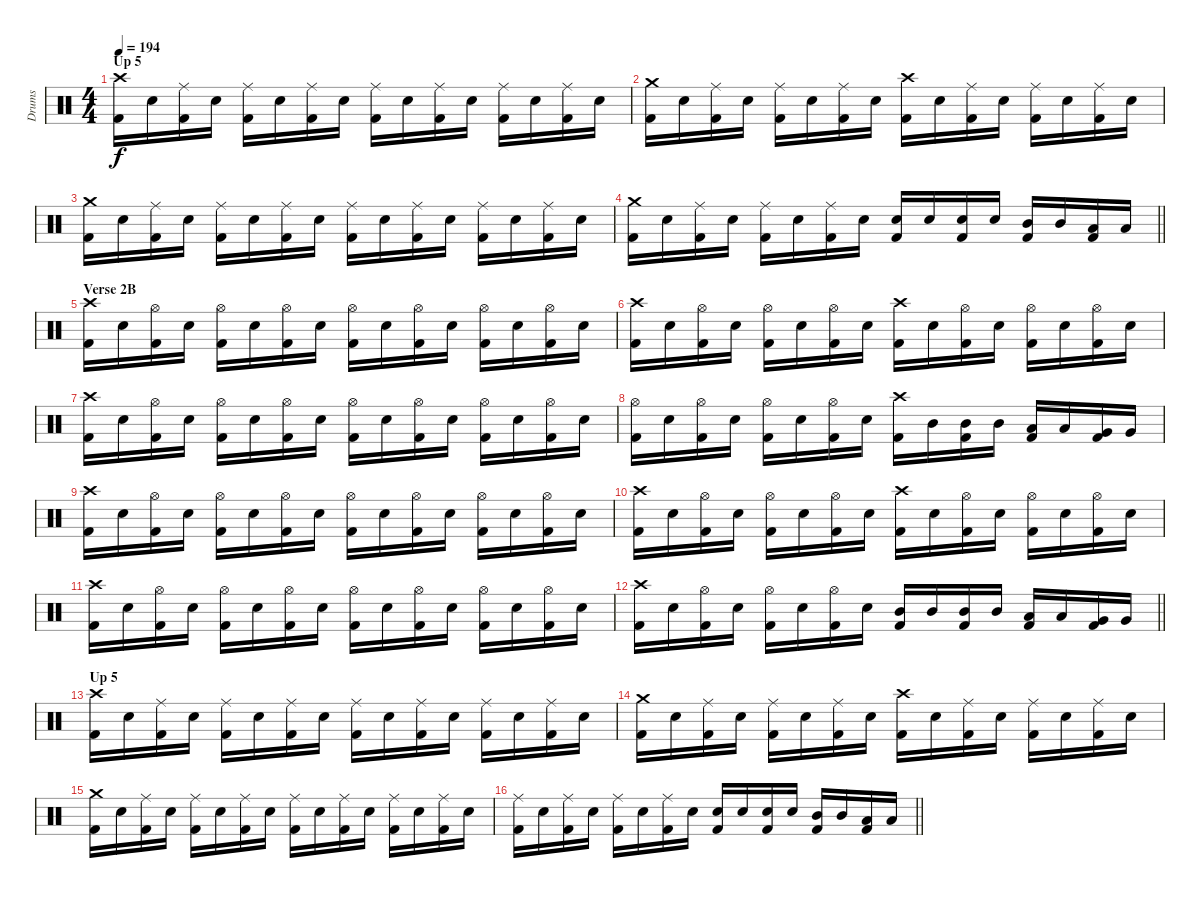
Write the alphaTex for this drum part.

\track ("Drums" "Drums") {instrument percussion}
\staff {score}
\articulation defaults
\ts (4 4)
\section ("" "Up 5")
\tempo 194
\clef neutral
\ks c
("Crash high (hit)" "Kick (hit) 2").16{dy f} "Electric Snare (hit)".16 ("Ride (middle)" "Kick (hit) 2").16 "Electric Snare (hit)".16 ("Ride (middle)" "Kick (hit) 2").16 "Electric Snare (hit)".16 ("Ride (middle)" "Kick (hit) 2").16 "Electric Snare (hit)".16 ("Ride (middle)" "Kick (hit) 2").16 "Electric Snare (hit)".16 ("Ride (middle)" "Kick (hit) 2").16 "Electric Snare (hit)".16 ("Ride (middle)" "Kick (hit) 2").16 "Electric Snare (hit)".16 ("Ride (middle)" "Kick (hit) 2").16 "Electric Snare (hit)".16 |
("Crash medium (hit)" "Kick (hit) 2").16 "Electric Snare (hit)".16 ("Ride (middle)" "Kick (hit) 2").16 "Electric Snare (hit)".16 ("Ride (middle)" "Kick (hit) 2").16 "Electric Snare (hit)".16 ("Ride (middle)" "Kick (hit) 2").16 "Electric Snare (hit)".16 ("Crash high (hit)" "Kick (hit) 2").16 "Electric Snare (hit)".16 ("Ride (middle)" "Kick (hit) 2").16 "Electric Snare (hit)".16 ("Ride (middle)" "Kick (hit) 2").16 "Electric Snare (hit)".16 ("Ride (middle)" "Kick (hit) 2").16 "Electric Snare (hit)".16 |
("Crash medium (hit)" "Kick (hit) 2").16 "Electric Snare (hit)".16 ("Ride (middle)" "Kick (hit) 2").16 "Electric Snare (hit)".16 ("Ride (middle)" "Kick (hit) 2").16 "Electric Snare (hit)".16 ("Ride (middle)" "Kick (hit) 2").16 "Electric Snare (hit)".16 ("Ride (middle)" "Kick (hit) 2").16 "Electric Snare (hit)".16 ("Ride (middle)" "Kick (hit) 2").16 "Electric Snare (hit)".16 ("Ride (middle)" "Kick (hit) 2").16 "Electric Snare (hit)".16 ("Ride (middle)" "Kick (hit) 2").16 "Electric Snare (hit)".16 |
\barLineRight lightlight
("Crash medium (hit)" "Kick (hit) 2").16 "Electric Snare (hit)".16 ("Ride (middle)" "Kick (hit) 2").16 "Electric Snare (hit)".16 ("Ride (middle)" "Kick (hit) 2").16 "Electric Snare (hit)".16 ("Ride (middle)" "Kick (hit) 2").16 "Electric Snare (hit)".16 ("Electric Snare (hit)" "Kick (hit) 2").16 "Electric Snare (hit)".16 ("Electric Snare (hit)" "Kick (hit) 2").16 "Electric Snare (hit)".16 ("Mid Tom (hit)" "Kick (hit) 2").16 "Mid Tom (hit)".16 ("Low Tom (hit)" "Kick (hit) 2").16 "Low Tom (hit)".16 |
\section ("" "Verse 2B")
("Crash high (hit)" "Kick (hit) 2").16 "Electric Snare (hit)".16 ("Hi-Hat (open)" "Kick (hit) 2").16 "Electric Snare (hit)".16 ("Hi-Hat (open)" "Kick (hit) 2").16 "Electric Snare (hit)".16 ("Hi-Hat (open)" "Kick (hit) 2").16 "Electric Snare (hit)".16 ("Hi-Hat (open)" "Kick (hit) 2").16 "Electric Snare (hit)".16 ("Hi-Hat (open)" "Kick (hit) 2").16 "Electric Snare (hit)".16 ("Hi-Hat (open)" "Kick (hit) 2").16 "Electric Snare (hit)".16 ("Hi-Hat (open)" "Kick (hit) 2").16 "Electric Snare (hit)".16 |
("Crash high (hit)" "Kick (hit) 2").16 "Electric Snare (hit)".16 ("Hi-Hat (open)" "Kick (hit) 2").16 "Electric Snare (hit)".16 ("Hi-Hat (open)" "Kick (hit) 2").16 "Electric Snare (hit)".16 ("Hi-Hat (open)" "Kick (hit) 2").16 "Electric Snare (hit)".16 ("Crash high (hit)" "Kick (hit) 2").16 "Electric Snare (hit)".16 ("Hi-Hat (open)" "Kick (hit) 2").16 "Electric Snare (hit)".16 ("Hi-Hat (open)" "Kick (hit) 2").16 "Electric Snare (hit)".16 ("Hi-Hat (open)" "Kick (hit) 2").16 "Electric Snare (hit)".16 |
("Crash high (hit)" "Kick (hit) 2").16 "Electric Snare (hit)".16 ("Hi-Hat (open)" "Kick (hit) 2").16 "Electric Snare (hit)".16 ("Hi-Hat (open)" "Kick (hit) 2").16 "Electric Snare (hit)".16 ("Hi-Hat (open)" "Kick (hit) 2").16 "Electric Snare (hit)".16 ("Hi-Hat (open)" "Kick (hit) 2").16 "Electric Snare (hit)".16 ("Hi-Hat (open)" "Kick (hit) 2").16 "Electric Snare (hit)".16 ("Hi-Hat (open)" "Kick (hit) 2").16 "Electric Snare (hit)".16 ("Hi-Hat (open)" "Kick (hit) 2").16 "Electric Snare (hit)".16 |
("Hi-Hat (open)" "Kick (hit) 2").16 "Electric Snare (hit)".16 ("Hi-Hat (open)" "Kick (hit) 2").16 "Electric Snare (hit)".16 ("Hi-Hat (open)" "Kick (hit) 2").16 "Electric Snare (hit)".16 ("Hi-Hat (open)" "Kick (hit) 2").16 "Electric Snare (hit)".16 ("Crash high (hit)" "Kick (hit) 2").16 "Mid Tom (hit)".16 ("Mid Tom (hit)" "Kick (hit) 2").16 "Mid Tom (hit)".16 ("Low Tom (hit)" "Kick (hit) 2").16 "Low Tom (hit)".16 ("Very Low Tom (hit)" "Kick (hit) 2").16 "Very Low Tom (hit)".16 |
("Crash high (hit)" "Kick (hit) 2").16 "Electric Snare (hit)".16 ("Hi-Hat (open)" "Kick (hit) 2").16 "Electric Snare (hit)".16 ("Hi-Hat (open)" "Kick (hit) 2").16 "Electric Snare (hit)".16 ("Hi-Hat (open)" "Kick (hit) 2").16 "Electric Snare (hit)".16 ("Hi-Hat (open)" "Kick (hit) 2").16 "Electric Snare (hit)".16 ("Hi-Hat (open)" "Kick (hit) 2").16 "Electric Snare (hit)".16 ("Hi-Hat (open)" "Kick (hit) 2").16 "Electric Snare (hit)".16 ("Hi-Hat (open)" "Kick (hit) 2").16 "Electric Snare (hit)".16 |
("Crash high (hit)" "Kick (hit) 2").16 "Electric Snare (hit)".16 ("Hi-Hat (open)" "Kick (hit) 2").16 "Electric Snare (hit)".16 ("Hi-Hat (open)" "Kick (hit) 2").16 "Electric Snare (hit)".16 ("Hi-Hat (open)" "Kick (hit) 2").16 "Electric Snare (hit)".16 ("Crash high (hit)" "Kick (hit) 2").16 "Electric Snare (hit)".16 ("Hi-Hat (open)" "Kick (hit) 2").16 "Electric Snare (hit)".16 ("Hi-Hat (open)" "Kick (hit) 2").16 "Electric Snare (hit)".16 ("Hi-Hat (open)" "Kick (hit) 2").16 "Electric Snare (hit)".16 |
("Crash high (hit)" "Kick (hit) 2").16 "Electric Snare (hit)".16 ("Hi-Hat (open)" "Kick (hit) 2").16 "Electric Snare (hit)".16 ("Hi-Hat (open)" "Kick (hit) 2").16 "Electric Snare (hit)".16 ("Hi-Hat (open)" "Kick (hit) 2").16 "Electric Snare (hit)".16 ("Hi-Hat (open)" "Kick (hit) 2").16 "Electric Snare (hit)".16 ("Hi-Hat (open)" "Kick (hit) 2").16 "Electric Snare (hit)".16 ("Hi-Hat (open)" "Kick (hit) 2").16 "Electric Snare (hit)".16 ("Hi-Hat (open)" "Kick (hit) 2").16 "Electric Snare (hit)".16 |
\barLineRight lightlight
("Crash high (hit)" "Kick (hit) 2").16 "Electric Snare (hit)".16 ("Hi-Hat (open)" "Kick (hit) 2").16 "Electric Snare (hit)".16 ("Hi-Hat (open)" "Kick (hit) 2").16 "Electric Snare (hit)".16 ("Hi-Hat (open)" "Kick (hit) 2").16 "Electric Snare (hit)".16 ("Mid Tom (hit)" "Kick (hit) 2").16 "Mid Tom (hit)".16 ("Mid Tom (hit)" "Kick (hit) 2").16 "Mid Tom (hit)".16 ("Low Tom (hit)" "Kick (hit) 2").16 "Low Tom (hit)".16 ("Very Low Tom (hit)" "Kick (hit) 2").16 "Very Low Tom (hit)".16 |
\section ("" "Up 5")
("Crash high (hit)" "Kick (hit) 2").16 "Electric Snare (hit)".16 ("Ride (middle)" "Kick (hit) 2").16 "Electric Snare (hit)".16 ("Ride (middle)" "Kick (hit) 2").16 "Electric Snare (hit)".16 ("Ride (middle)" "Kick (hit) 2").16 "Electric Snare (hit)".16 ("Ride (middle)" "Kick (hit) 2").16 "Electric Snare (hit)".16 ("Ride (middle)" "Kick (hit) 2").16 "Electric Snare (hit)".16 ("Ride (middle)" "Kick (hit) 2").16 "Electric Snare (hit)".16 ("Ride (middle)" "Kick (hit) 2").16 "Electric Snare (hit)".16 |
("Crash medium (hit)" "Kick (hit) 2").16 "Electric Snare (hit)".16 ("Ride (middle)" "Kick (hit) 2").16 "Electric Snare (hit)".16 ("Ride (middle)" "Kick (hit) 2").16 "Electric Snare (hit)".16 ("Ride (middle)" "Kick (hit) 2").16 "Electric Snare (hit)".16 ("Crash high (hit)" "Kick (hit) 2").16 "Electric Snare (hit)".16 ("Ride (middle)" "Kick (hit) 2").16 "Electric Snare (hit)".16 ("Ride (middle)" "Kick (hit) 2").16 "Electric Snare (hit)".16 ("Ride (middle)" "Kick (hit) 2").16 "Electric Snare (hit)".16 |
("Crash medium (hit)" "Kick (hit) 2").16 "Electric Snare (hit)".16 ("Ride (middle)" "Kick (hit) 2").16 "Electric Snare (hit)".16 ("Ride (middle)" "Kick (hit) 2").16 "Electric Snare (hit)".16 ("Ride (middle)" "Kick (hit) 2").16 "Electric Snare (hit)".16 ("Ride (middle)" "Kick (hit) 2").16 "Electric Snare (hit)".16 ("Ride (middle)" "Kick (hit) 2").16 "Electric Snare (hit)".16 ("Ride (middle)" "Kick (hit) 2").16 "Electric Snare (hit)".16 ("Ride (middle)" "Kick (hit) 2").16 "Electric Snare (hit)".16 |
\barLineRight lightlight
("Ride (middle)" "Kick (hit) 2").16 "Electric Snare (hit)".16 ("Ride (middle)" "Kick (hit) 2").16 "Electric Snare (hit)".16 ("Ride (middle)" "Kick (hit) 2").16 "Electric Snare (hit)".16 ("Ride (middle)" "Kick (hit) 2").16 "Electric Snare (hit)".16 ("Electric Snare (hit)" "Kick (hit) 2").16 "Electric Snare (hit)".16 ("Electric Snare (hit)" "Kick (hit) 2").16 "Electric Snare (hit)".16 ("Mid Tom (hit)" "Kick (hit) 2").16 "Mid Tom (hit)".16 ("Low Tom (hit)" "Kick (hit) 2").16 "Low Tom (hit)".16
